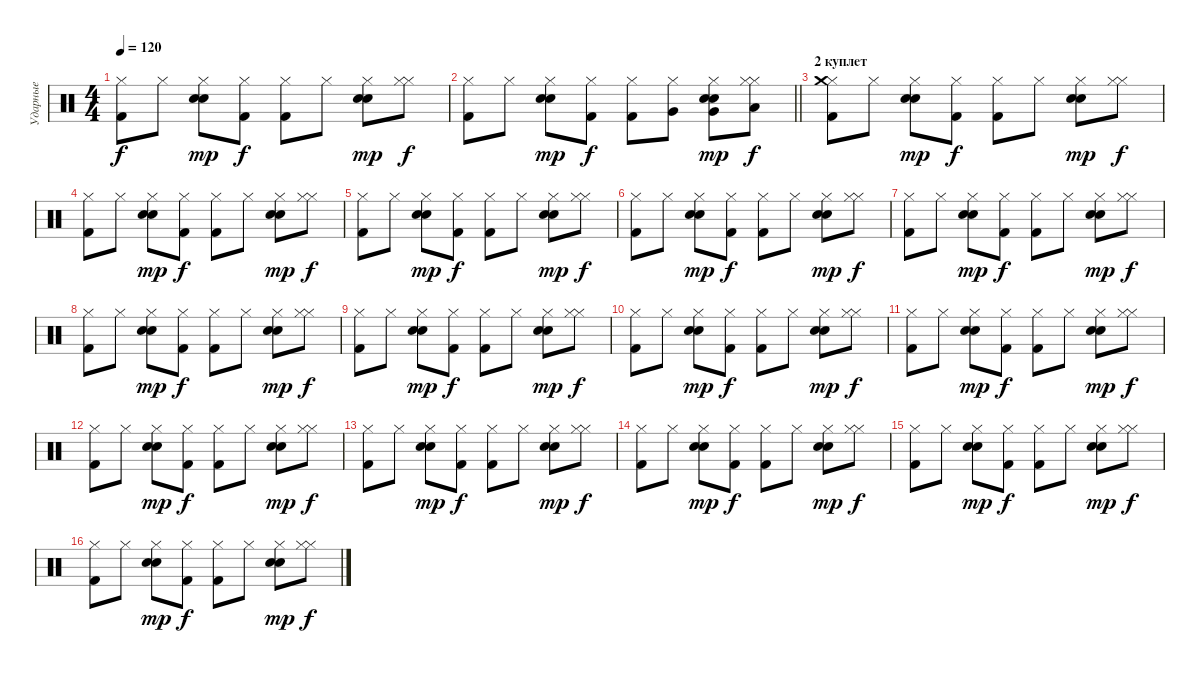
\track ("Ударные" "Ударные") {instrument percussion}
\staff {score}
\articulation defaults
\ts (4 4)
\tempo 120
\clef neutral
\ks c
("Kick (hit) 2" "Hi-Hat (closed)").8{dy f} "Hi-Hat (closed)".8 ("Hand Clap (hit)" "Hi-Hat (closed)" "Electric Snare (hit)").8{dy mp} ("Kick (hit) 2" "Hi-Hat (closed)").8{dy f} ("Kick (hit) 2" "Hi-Hat (closed)").8 "Hi-Hat (closed)".8 ("Hand Clap (hit)" "Hi-Hat (closed)" "Electric Snare (hit)").8{dy mp} ("Hi-Hat (closed)" "Hi-Hat (closed)").8{dy f} |
\barLineRight lightlight
("Kick (hit) 2" "Hi-Hat (closed)").8 "Hi-Hat (closed)".8 ("Hand Clap (hit)" "Hi-Hat (closed)" "Electric Snare (hit)").8{dy mp} ("Kick (hit) 2" "Hi-Hat (closed)").8{dy f} ("Kick (hit) 2" "Hi-Hat (closed)").8 ("Hi-Hat (closed)" "Very Low Tom (hit)").8 ("Hand Clap (hit)" "Hi-Hat (closed)" "Electric Snare (hit)" "Very Low Tom (hit)").8{dy mp} ("Hi-Hat (closed)" "Hi-Hat (closed)" "Low Tom (hit)").8{dy f} |
\section ("" "2 куплет")
("Kick (hit) 2" "Hi-Hat (closed)" "Crash medium (hit)").8 "Hi-Hat (closed)".8 ("Hand Clap (hit)" "Hi-Hat (closed)" "Electric Snare (hit)").8{dy mp} ("Kick (hit) 2" "Hi-Hat (closed)").8{dy f} ("Kick (hit) 2" "Hi-Hat (closed)").8 "Hi-Hat (closed)".8 ("Hand Clap (hit)" "Hi-Hat (closed)" "Electric Snare (hit)").8{dy mp} ("Hi-Hat (closed)" "Hi-Hat (closed)").8{dy f} |
("Kick (hit) 2" "Hi-Hat (closed)").8 "Hi-Hat (closed)".8 ("Hand Clap (hit)" "Hi-Hat (closed)" "Electric Snare (hit)").8{dy mp} ("Kick (hit) 2" "Hi-Hat (closed)").8{dy f} ("Kick (hit) 2" "Hi-Hat (closed)").8 "Hi-Hat (closed)".8 ("Hand Clap (hit)" "Hi-Hat (closed)" "Electric Snare (hit)").8{dy mp} ("Hi-Hat (closed)" "Hi-Hat (closed)").8{dy f} |
("Kick (hit) 2" "Hi-Hat (closed)").8 "Hi-Hat (closed)".8 ("Hand Clap (hit)" "Hi-Hat (closed)" "Electric Snare (hit)").8{dy mp} ("Kick (hit) 2" "Hi-Hat (closed)").8{dy f} ("Kick (hit) 2" "Hi-Hat (closed)").8 "Hi-Hat (closed)".8 ("Hand Clap (hit)" "Hi-Hat (closed)" "Electric Snare (hit)").8{dy mp} ("Hi-Hat (closed)" "Hi-Hat (closed)").8{dy f} |
("Kick (hit) 2" "Hi-Hat (closed)").8 "Hi-Hat (closed)".8 ("Hand Clap (hit)" "Hi-Hat (closed)" "Electric Snare (hit)").8{dy mp} ("Kick (hit) 2" "Hi-Hat (closed)").8{dy f} ("Kick (hit) 2" "Hi-Hat (closed)").8 "Hi-Hat (closed)".8 ("Hand Clap (hit)" "Hi-Hat (closed)" "Electric Snare (hit)").8{dy mp} ("Hi-Hat (closed)" "Hi-Hat (closed)").8{dy f} |
("Kick (hit) 2" "Hi-Hat (closed)").8 "Hi-Hat (closed)".8 ("Hand Clap (hit)" "Hi-Hat (closed)" "Electric Snare (hit)").8{dy mp} ("Kick (hit) 2" "Hi-Hat (closed)").8{dy f} ("Kick (hit) 2" "Hi-Hat (closed)").8 "Hi-Hat (closed)".8 ("Hand Clap (hit)" "Hi-Hat (closed)" "Electric Snare (hit)").8{dy mp} ("Hi-Hat (closed)" "Hi-Hat (closed)").8{dy f} |
("Kick (hit) 2" "Hi-Hat (closed)").8 "Hi-Hat (closed)".8 ("Hand Clap (hit)" "Hi-Hat (closed)" "Electric Snare (hit)").8{dy mp} ("Kick (hit) 2" "Hi-Hat (closed)").8{dy f} ("Kick (hit) 2" "Hi-Hat (closed)").8 "Hi-Hat (closed)".8 ("Hand Clap (hit)" "Hi-Hat (closed)" "Electric Snare (hit)").8{dy mp} ("Hi-Hat (closed)" "Hi-Hat (closed)").8{dy f} |
("Kick (hit) 2" "Hi-Hat (closed)").8 "Hi-Hat (closed)".8 ("Hand Clap (hit)" "Hi-Hat (closed)" "Electric Snare (hit)").8{dy mp} ("Kick (hit) 2" "Hi-Hat (closed)").8{dy f} ("Kick (hit) 2" "Hi-Hat (closed)").8 "Hi-Hat (closed)".8 ("Hand Clap (hit)" "Hi-Hat (closed)" "Electric Snare (hit)").8{dy mp} ("Hi-Hat (closed)" "Hi-Hat (closed)").8{dy f} |
("Kick (hit) 2" "Hi-Hat (closed)").8 "Hi-Hat (closed)".8 ("Hand Clap (hit)" "Hi-Hat (closed)" "Electric Snare (hit)").8{dy mp} ("Kick (hit) 2" "Hi-Hat (closed)").8{dy f} ("Kick (hit) 2" "Hi-Hat (closed)").8 "Hi-Hat (closed)".8 ("Hand Clap (hit)" "Hi-Hat (closed)" "Electric Snare (hit)").8{dy mp} ("Hi-Hat (closed)" "Hi-Hat (closed)").8{dy f} |
("Kick (hit) 2" "Hi-Hat (closed)").8 "Hi-Hat (closed)".8 ("Hand Clap (hit)" "Hi-Hat (closed)" "Electric Snare (hit)").8{dy mp} ("Kick (hit) 2" "Hi-Hat (closed)").8{dy f} ("Kick (hit) 2" "Hi-Hat (closed)").8 "Hi-Hat (closed)".8 ("Hand Clap (hit)" "Hi-Hat (closed)" "Electric Snare (hit)").8{dy mp} ("Hi-Hat (closed)" "Hi-Hat (closed)").8{dy f} |
("Kick (hit) 2" "Hi-Hat (closed)").8 "Hi-Hat (closed)".8 ("Hand Clap (hit)" "Hi-Hat (closed)" "Electric Snare (hit)").8{dy mp} ("Kick (hit) 2" "Hi-Hat (closed)").8{dy f} ("Kick (hit) 2" "Hi-Hat (closed)").8 "Hi-Hat (closed)".8 ("Hand Clap (hit)" "Hi-Hat (closed)" "Electric Snare (hit)").8{dy mp} ("Hi-Hat (closed)" "Hi-Hat (closed)").8{dy f} |
("Kick (hit) 2" "Hi-Hat (closed)").8 "Hi-Hat (closed)".8 ("Hand Clap (hit)" "Hi-Hat (closed)" "Electric Snare (hit)").8{dy mp} ("Kick (hit) 2" "Hi-Hat (closed)").8{dy f} ("Kick (hit) 2" "Hi-Hat (closed)").8 "Hi-Hat (closed)".8 ("Hand Clap (hit)" "Hi-Hat (closed)" "Electric Snare (hit)").8{dy mp} ("Hi-Hat (closed)" "Hi-Hat (closed)").8{dy f} |
("Kick (hit) 2" "Hi-Hat (closed)").8 "Hi-Hat (closed)".8 ("Hand Clap (hit)" "Hi-Hat (closed)" "Electric Snare (hit)").8{dy mp} ("Kick (hit) 2" "Hi-Hat (closed)").8{dy f} ("Kick (hit) 2" "Hi-Hat (closed)").8 "Hi-Hat (closed)".8 ("Hand Clap (hit)" "Hi-Hat (closed)" "Electric Snare (hit)").8{dy mp} ("Hi-Hat (closed)" "Hi-Hat (closed)").8{dy f} |
("Kick (hit) 2" "Hi-Hat (closed)").8 "Hi-Hat (closed)".8 ("Hand Clap (hit)" "Hi-Hat (closed)" "Electric Snare (hit)").8{dy mp} ("Kick (hit) 2" "Hi-Hat (closed)").8{dy f} ("Kick (hit) 2" "Hi-Hat (closed)").8 "Hi-Hat (closed)".8 ("Hand Clap (hit)" "Hi-Hat (closed)" "Electric Snare (hit)").8{dy mp} ("Hi-Hat (closed)" "Hi-Hat (closed)").8{dy f} |
("Kick (hit) 2" "Hi-Hat (closed)").8 "Hi-Hat (closed)".8 ("Hand Clap (hit)" "Hi-Hat (closed)" "Electric Snare (hit)").8{dy mp} ("Kick (hit) 2" "Hi-Hat (closed)").8{dy f} ("Kick (hit) 2" "Hi-Hat (closed)").8 "Hi-Hat (closed)".8 ("Hand Clap (hit)" "Hi-Hat (closed)" "Electric Snare (hit)").8{dy mp} ("Hi-Hat (closed)" "Hi-Hat (closed)").8{dy f}
